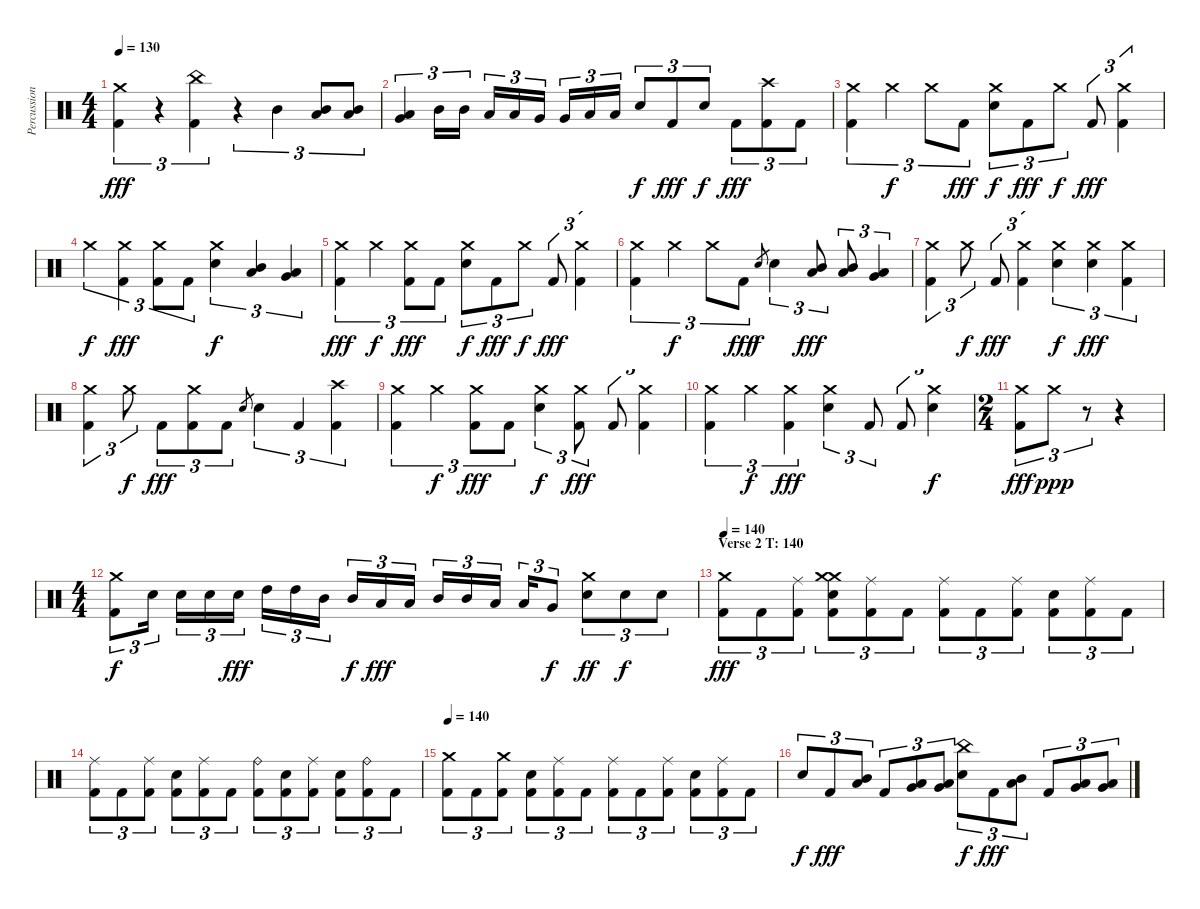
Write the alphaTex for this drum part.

\track ("Percussion" "Percussion") {instrument percussion}
\staff {score}
\articulation defaults
\ts (4 4)
\tempo 130
\clef neutral
\ks c
("Crash medium (hit)" "Kick (hit) 2").4{tu (3 2) dy fff} r.4{tu (3 2)} ("China (hit)" "Kick (hit) 2").4{tu (3 2)} r.4{tu (3 2)} "Mid Tom (hit)".4{tu (3 2)} ("Mid Tom (hit)" "Low Tom (hit)").8{tu (3 2)} ("Mid Tom (hit)" "Low Tom (hit)").8{tu (3 2)} |
("Very Low Tom (hit)" "Low Tom (hit)").4{tu (3 2)} "Mid Tom (hit)".16{tu (3 2)} "Mid Tom (hit)".16{tu (3 2)} "Low Tom (hit)".16{tu (3 2)} "Low Tom (hit)".16{tu (3 2)} "Very Low Tom (hit)".16{tu (3 2)} "Very Low Tom (hit)".16{tu (3 2)} "Low Floor Tom (hit)".16{tu (3 2)} "Low Floor Tom (hit)".16{tu (3 2)} "Electric Snare (hit)".8{tu (3 2) dy f} "Kick (hit) 2".8{tu (3 2) dy fff} "Electric Snare (hit)".8{tu (3 2) dy f} "Kick (hit) 2".8{tu (3 2) dy fff} ("Crash high (hit)" "Kick (hit) 2").8{tu (3 2)} "Kick (hit) 2".8{tu (3 2)} |
("Crash medium (hit)" "Kick (hit) 2").4{tu (3 2)} "Crash medium (hit)".4{tu (3 2) dy f} "Crash medium (hit)".8{tu (3 2)} "Kick (hit) 2".8{tu (3 2) dy fff} ("Crash medium (hit)" "Electric Snare (hit)").8{tu (3 2) dy f} "Kick (hit) 2".8{tu (3 2) dy fff} "Crash medium (hit)".8{tu (3 2) dy f} "Kick (hit) 2".8{tu (3 2) dy fff} ("Crash medium (hit)" "Kick (hit) 2").4{tu (3 2)} |
"Crash medium (hit)".4{tu (3 2) dy f} ("Crash medium (hit)" "Kick (hit) 2").4{tu (3 2) dy fff} ("Crash medium (hit)" "Kick (hit) 2").8{tu (3 2)} "Kick (hit) 2".8{tu (3 2)} ("Crash medium (hit)" "Electric Snare (hit)").4{tu (3 2) dy f} ("Mid Tom (hit)" "Low Tom (hit)").4{tu (3 2)} ("Low Tom (hit)" "Very Low Tom (hit)").4{tu (3 2)} |
("Crash medium (hit)" "Kick (hit) 2").4{tu (3 2) dy fff} "Crash medium (hit)".4{tu (3 2) dy f} ("Crash medium (hit)" "Kick (hit) 2").8{tu (3 2) dy fff} "Kick (hit) 2".8{tu (3 2)} ("Crash medium (hit)" "Electric Snare (hit)").8{tu (3 2) dy f} "Kick (hit) 2".8{tu (3 2) dy fff} "Crash medium (hit)".8{tu (3 2) dy f} "Kick (hit) 2".8{tu (3 2) dy fff} ("Crash medium (hit)" "Kick (hit) 2").4{tu (3 2)} |
("Crash medium (hit)" "Kick (hit) 2").4{tu (3 2)} "Crash medium (hit)".4{tu (3 2) dy f} "Crash medium (hit)".8{tu (3 2)} "Kick (hit) 2".8{tu (3 2) dy fff} "Electric Snare (hit)".8{gr dy f} "Electric Snare (hit)".4{tu (3 2)} ("Mid Tom (hit)" "Low Tom (hit)").8{tu (3 2) dy fff} ("Mid Tom (hit)" "Low Tom (hit)").8{tu (3 2)} ("Very Low Tom (hit)" "Low Tom (hit)").4{tu (3 2)} |
("Crash medium (hit)" "Kick (hit) 2").4{tu (3 2)} "Crash medium (hit)".8{tu (3 2) dy f} "Kick (hit) 2".8{tu (3 2) dy fff} ("Crash medium (hit)" "Kick (hit) 2").4{tu (3 2)} ("Crash medium (hit)" "Electric Snare (hit)").4{tu (3 2) dy f} ("Crash medium (hit)" "Snare (hit)").4{tu (3 2) dy fff} ("Crash medium (hit)" "Kick (hit) 2").4{tu (3 2)} |
("Crash medium (hit)" "Kick (hit) 2").4{tu (3 2)} "Crash medium (hit)".8{tu (3 2) dy f} "Kick (hit) 2".8{tu (3 2) dy fff} ("Crash medium (hit)" "Kick (hit) 2").8{tu (3 2)} "Kick (hit) 2".8{tu (3 2)} "Electric Snare (hit)".8{gr} "Electric Snare (hit)".4{tu (3 2)} "Kick (hit) 2".4{tu (3 2)} ("Crash high (hit)" "Kick (hit) 2").4{tu (3 2)} |
("Crash medium (hit)" "Kick (hit) 2").4{tu (3 2)} "Crash medium (hit)".4{tu (3 2) dy f} ("Crash medium (hit)" "Kick (hit) 2").8{tu (3 2) dy fff} "Kick (hit) 2".8{tu (3 2)} ("Crash medium (hit)" "Electric Snare (hit)").4{tu (3 2) dy f} ("Crash medium (hit)" "Kick (hit) 2").8{tu (3 2) dy fff} "Kick (hit) 2".8{tu (3 2)} ("Crash medium (hit)" "Kick (hit) 2").4{tu (3 2)} |
("Crash medium (hit)" "Kick (hit) 2").4{tu (3 2)} "Crash medium (hit)".4{tu (3 2) dy f} ("Crash medium (hit)" "Kick (hit) 2").4{tu (3 2) dy fff} ("Crash medium (hit)" "Electric Snare (hit)").4{tu (3 2)} "Kick (hit) 2".8{tu (3 2)} "Kick (hit) 2".8{tu (3 2)} ("Crash medium (hit)" "Electric Snare (hit)").4{tu (3 2) dy f} |
\ts (2 4)
("Crash medium (hit)" "Kick (hit) 2").8{tu (3 2) dy fff} "Crash medium (hit)".8{tu (3 2) dy ppp} r.8{tu (3 2)} r.4 |
\ts (4 4)
("Crash medium (hit)" "Kick (hit) 2").8{tu (3 2) dy f} "Electric Snare (hit)".16{tu (3 2)} "Electric Snare (hit)".16{tu (3 2)} "Electric Snare (hit)".16{tu (3 2)} "Electric Snare (hit)".16{tu (3 2) dy fff} "High Tom (hit)".16{tu (3 2)} "High Tom (hit)".16{tu (3 2)} "Mid Tom (hit)".16{tu (3 2)} "Mid Tom (hit)".16{tu (3 2) dy f} "Low Tom (hit)".16{tu (3 2) dy fff} "Low Tom (hit)".16{tu (3 2)} "Mid Tom (hit)".16{tu (3 2)} "Mid Tom (hit)".16{tu (3 2)} "Low Tom (hit)".16{tu (3 2)} "Low Tom (hit)".16{tu (3 2)} "Very Low Tom (hit)".8{tu (3 2) dy f} ("Crash medium (hit)" "Electric Snare (hit)").8{tu (3 2) dy ff} "Electric Snare (hit)".8{tu (3 2) dy f} "Electric Snare (hit)".8{tu (3 2)} |
\section ("" "Verse 2 T: 140")
\tempo 140
("Crash medium (hit)" "Kick (hit) 2").8{tu (3 2) dy fff} "Kick (hit) 2".8{tu (3 2)} ("Ride (middle)" "Kick (hit) 2").8{tu (3 2)} ("Crash medium (hit)" "Crash medium (hit)" "Electric Snare (hit)" "Kick (hit) 2").8{tu (3 2)} ("Ride (middle)" "Kick (hit) 2").8{tu (3 2)} "Kick (hit) 2".8{tu (3 2)} ("Ride (middle)" "Kick (hit) 2").8{tu (3 2)} "Kick (hit) 2".8{tu (3 2)} ("Ride (middle)" "Kick (hit) 2").8{tu (3 2)} ("Electric Snare (hit)" "Kick (hit) 2").8{tu (3 2)} ("Ride (middle)" "Kick (hit) 2").8{tu (3 2)} "Kick (hit) 2".8{tu (3 2)} |
("Ride (middle)" "Kick (hit) 2").8{tu (3 2)} "Kick (hit) 2".8{tu (3 2)} ("Ride (middle)" "Kick (hit) 2").8{tu (3 2)} ("Electric Snare (hit)" "Kick (hit) 2").8{tu (3 2)} ("Ride (middle)" "Kick (hit) 2").8{tu (3 2)} "Kick (hit) 2".8{tu (3 2)} ("Ride (bell)" "Kick (hit) 2").8{tu (3 2)} ("Electric Snare (hit)" "Kick (hit) 2").8{tu (3 2)} ("Ride (middle)" "Kick (hit) 2").8{tu (3 2)} ("Electric Snare (hit)" "Kick (hit) 2").8{tu (3 2)} ("Ride (bell)" "Kick (hit) 2").8{tu (3 2)} "Kick (hit) 2".8{tu (3 2)} |
\tempo 140
("Crash medium (hit)" "Kick (hit) 2").8{tu (3 2)} "Kick (hit) 2".8{tu (3 2)} ("Crash medium (hit)" "Kick (hit) 2").8{tu (3 2)} ("Electric Snare (hit)" "Kick (hit) 2").8{tu (3 2)} ("Ride (middle)" "Kick (hit) 2").8{tu (3 2)} "Kick (hit) 2".8{tu (3 2)} ("Ride (middle)" "Kick (hit) 2").8{tu (3 2)} "Kick (hit) 2".8{tu (3 2)} ("Ride (middle)" "Kick (hit) 2").8{tu (3 2)} ("Electric Snare (hit)" "Kick (hit) 2").8{tu (3 2)} ("Ride (middle)" "Kick (hit) 2").8{tu (3 2)} "Kick (hit) 2".8{tu (3 2)} |
"Electric Snare (hit)".8{tu (3 2) dy f} "Kick (hit) 2".8{tu (3 2) dy fff} ("Mid Tom (hit)" "Low Tom (hit)").8{tu (3 2)} "Kick (hit) 2".8{tu (3 2)} ("Very Low Tom (hit)" "Low Tom (hit)").8{tu (3 2)} ("Very Low Tom (hit)" "Low Tom (hit)").8{tu (3 2)} ("China (hit)" "Electric Snare (hit)").8{tu (3 2) dy f} "Kick (hit) 2".8{tu (3 2) dy fff} ("Mid Tom (hit)" "Low Tom (hit)").8{tu (3 2)} "Kick (hit) 2".8{tu (3 2)} ("Very Low Tom (hit)" "Low Tom (hit)").8{tu (3 2)} ("Very Low Tom (hit)" "Low Tom (hit)").8{tu (3 2)}
